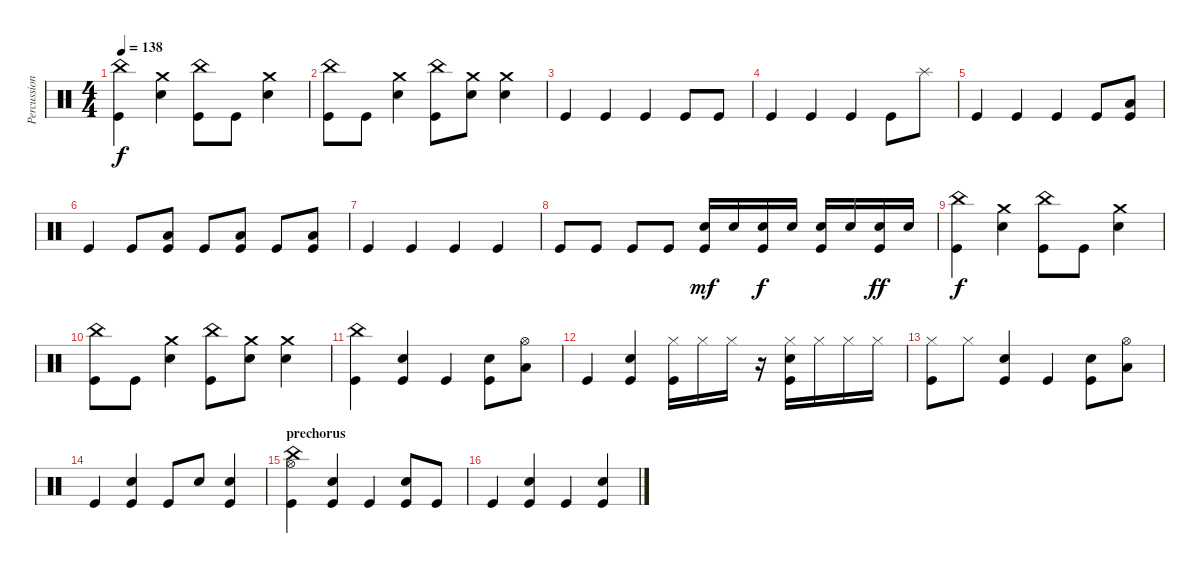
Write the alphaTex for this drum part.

\track ("Percussion" "Percussion") {instrument percussion}
\staff {score}
\articulation defaults
\ts (4 4)
\tempo 138
\clef neutral
\ks c
("China (hit)" "Kick (hit)").4{dy f} ("Crash medium (hit)" "Snare (hit) 2").4 ("China (hit)" "Kick (hit)").8 "Kick (hit)".8 ("Crash medium (hit)" "Snare (hit) 2").4 |
("China (hit)" "Kick (hit)").8 "Kick (hit)".8 ("Crash medium (hit)" "Snare (hit) 2").4 ("China (hit)" "Kick (hit)").8 ("Crash medium (hit)" "Snare (hit) 2").8 ("Crash medium (hit)" "Snare (hit) 2").4 |
"Kick (hit)".4 "Kick (hit)".4 "Kick (hit)".4 "Kick (hit)".8 "Kick (hit)".8 |
"Kick (hit)".4 "Kick (hit)".4 "Kick (hit)".4 "Kick (hit)".8 "Splash (hit)".8 |
"Kick (hit)".4 "Kick (hit)".4 "Kick (hit)".4 "Kick (hit)".8 ("Low Tom (hit)" "Kick (hit)").8 |
"Kick (hit)".4 "Kick (hit)".8 ("Low Tom (hit)" "Kick (hit)").8 "Kick (hit)".8 ("Low Tom (hit)" "Kick (hit)").8 "Kick (hit)".8 ("Low Tom (hit)" "Kick (hit)").8 |
"Kick (hit)".4 "Kick (hit)".4 "Kick (hit)".4 "Kick (hit)".4 |
"Kick (hit)".8 "Kick (hit)".8 "Kick (hit)".8 "Kick (hit)".8 ("Snare (hit) 2" "Kick (hit)").16{dy mf} "Snare (hit) 2".16 ("Snare (hit) 2" "Kick (hit)").16{dy f} "Snare (hit) 2".16 ("Snare (hit) 2" "Kick (hit)").16 "Snare (hit) 2".16 ("Snare (hit) 2" "Kick (hit)").16{dy ff} "Snare (hit) 2".16 |
("China (hit)" "Kick (hit)").4{dy f} ("Crash medium (hit)" "Snare (hit) 2").4 ("China (hit)" "Kick (hit)").8 "Kick (hit)".8 ("Crash medium (hit)" "Snare (hit) 2").4 |
("China (hit)" "Kick (hit)").8 "Kick (hit)".8 ("Crash medium (hit)" "Snare (hit) 2").4 ("China (hit)" "Kick (hit)").8 ("Crash medium (hit)" "Snare (hit) 2").8 ("Crash medium (hit)" "Snare (hit) 2").4 |
("China (hit)" "Kick (hit)").4 ("Snare (hit) 2" "Kick (hit)").4 "Kick (hit)".4 ("Snare (hit) 2" "Kick (hit)").8 ("Hi-Hat (open)" "Low Tom (hit)").8 |
"Kick (hit)".4 ("Snare (hit) 2" "Kick (hit)").4 ("Hi-Hat (closed)" "Kick (hit)").16 "Hi-Hat (closed)".16 "Hi-Hat (closed)".16 r.16 ("Hi-Hat (closed)" "Snare (hit) 2" "Kick (hit)").16 "Hi-Hat (closed)".16 "Hi-Hat (closed)".16 "Hi-Hat (closed)".16 |
("Hi-Hat (closed)" "Kick (hit)").8 "Hi-Hat (closed)".8 ("Snare (hit) 2" "Kick (hit)").4 "Kick (hit)".4 ("Snare (hit) 2" "Kick (hit)").8 ("Hi-Hat (open)" "Low Tom (hit)").8 |
"Kick (hit)".4 ("Snare (hit) 2" "Kick (hit)").4 "Kick (hit)".8 "Snare (hit) 2".8 ("Snare (hit) 2" "Kick (hit)").4 |
\section ("" "prechorus")
("China (hit)" "Hi-Hat (open)" "Kick (hit)").4 ("Snare (hit) 2" "Kick (hit)").4 "Kick (hit)".4 ("Snare (hit) 2" "Kick (hit)").8 "Kick (hit)".8 |
"Kick (hit)".4 ("Snare (hit) 2" "Kick (hit)").4 "Kick (hit)".4 ("Snare (hit) 2" "Kick (hit)").4
